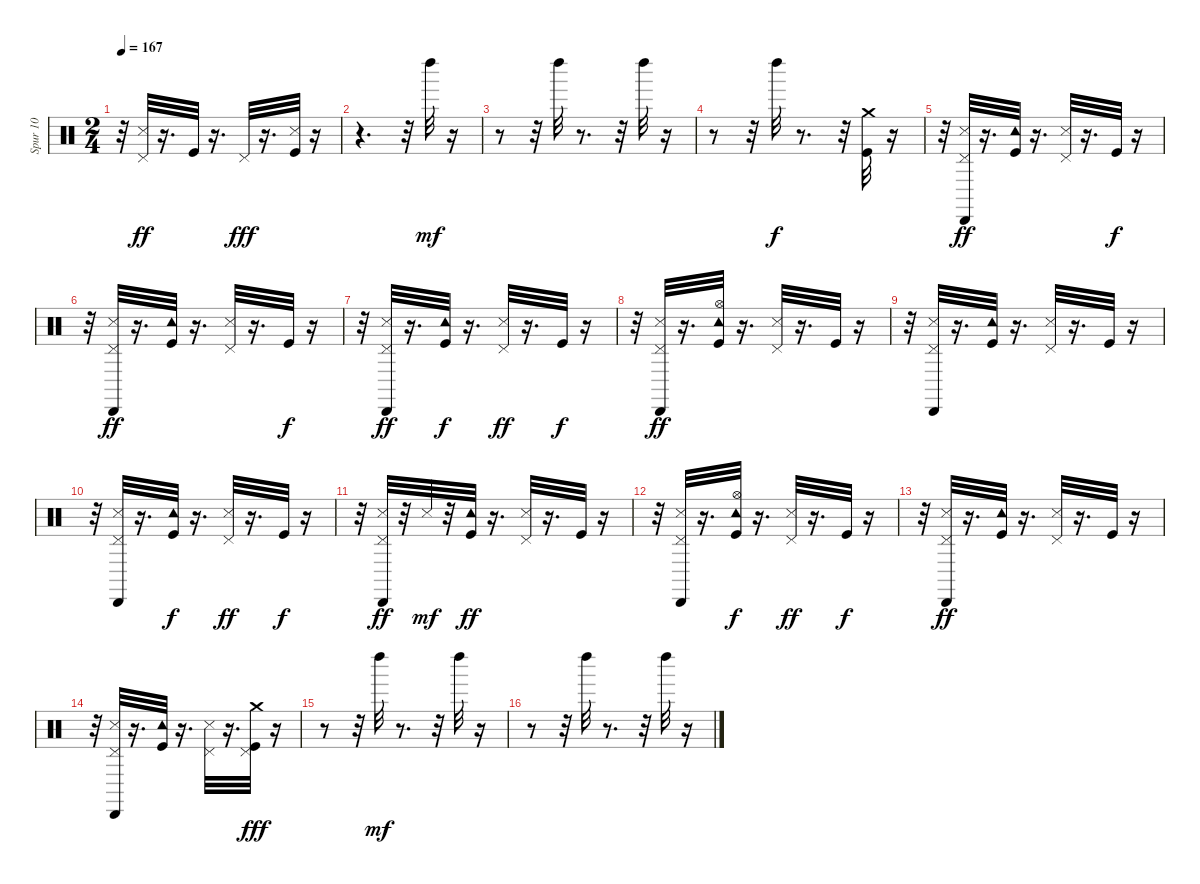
\track ("Spur 10" "Spur 10") {instrument percussion}
\staff {score}
\articulation defaults
\ts (2 4)
\tempo 167
\clef neutral
\ks c
r.32{dy ff} ("Snare (side stick) 3" "Pedal Hi-Hat (hit)").32 r.16{d} "Kick (hit)".32 r.16{d} "Pedal Hi-Hat (hit)".32{dy fff} r.16{d} ("Snare (side stick) 3" "Kick (hit)").32 r.16 |
r.4{d} r.32 "Left Maraca (hit)".32{dy mf} r.16 |
r.8 r.32 "Left Maraca (hit)".32 r.8{d} r.32 "Left Maraca (hit)".32 r.16 |
r.8 r.32 "Left Maraca (hit)".32{dy f} r.8{d} r.32 ("Kick (hit)" "Crash medium (hit)").32 r.16 |
r.32 ("Snare (side stick) 3" "Cabasa (hit)" "Pedal Hi-Hat (hit)").32{dy ff} r.16{d} ("Kick (hit)" "Tambourine (hit)").32 r.16{d} ("Snare (side stick) 3" "Pedal Hi-Hat (hit)").32 r.16{d} "Kick (hit)".32{dy f} r.16 |
r.32 ("Cabasa (hit)" "Pedal Hi-Hat (hit)" "Snare (side stick) 3").32{dy ff} r.16{d} ("Kick (hit)" "Tambourine (hit)").32 r.16{d} ("Snare (side stick) 3" "Pedal Hi-Hat (hit)").32 r.16{d} "Kick (hit)".32{dy f} r.16 |
r.32 ("Pedal Hi-Hat (hit)" "Snare (side stick) 3" "Cabasa (hit)").32{dy ff} r.16{d} ("Tambourine (hit)" "Kick (hit)").32{dy f} r.16{d} ("Snare (side stick) 3" "Pedal Hi-Hat (hit)").32{dy ff} r.16{d} "Kick (hit)".32{dy f} r.16 |
r.32 ("Pedal Hi-Hat (hit)" "Snare (side stick) 3" "Cabasa (hit)").32{dy ff} r.16{d} ("Hi-Hat (open)" "Tambourine (hit)" "Kick (hit)").32 r.16{d} ("Snare (side stick) 3" "Pedal Hi-Hat (hit)").32 r.16{d} "Kick (hit)".32 r.16 |
r.32 ("Snare (side stick) 3" "Cabasa (hit)" "Pedal Hi-Hat (hit)").32 r.16{d} ("Tambourine (hit)" "Kick (hit)").32 r.16{d} ("Pedal Hi-Hat (hit)" "Snare (side stick) 3").32 r.16{d} "Kick (hit)".32 r.16 |
r.32 ("Cabasa (hit)" "Pedal Hi-Hat (hit)" "Snare (side stick) 3").32 r.16{d} ("Kick (hit)" "Tambourine (hit)").32{dy f} r.16{d} ("Pedal Hi-Hat (hit)" "Snare (side stick) 3").32{dy ff} r.16{d} "Kick (hit)".32{dy f} r.16 |
r.32 ("Cabasa (hit)" "Snare (side stick) 3" "Pedal Hi-Hat (hit)").32{dy ff} r.32 "Snare (side stick) 3".32{dy mf} r.32 ("Kick (hit)" "Tambourine (hit)").32{dy ff} r.16{d} ("Snare (side stick) 3" "Pedal Hi-Hat (hit)").32 r.16{d} "Kick (hit)".32 r.16 |
r.32 ("Snare (side stick) 3" "Pedal Hi-Hat (hit)" "Cabasa (hit)").32 r.16{d} ("Kick (hit)" "Tambourine (hit)" "Hi-Hat (open)").32{dy f} r.16{d} ("Snare (side stick) 3" "Pedal Hi-Hat (hit)").32{dy ff} r.16{d} "Kick (hit)".32{dy f} r.16 |
r.32 ("Snare (side stick) 3" "Pedal Hi-Hat (hit)" "Cabasa (hit)").32{dy ff} r.16{d} ("Tambourine (hit)" "Kick (hit)").32 r.16{d} ("Snare (side stick) 3" "Pedal Hi-Hat (hit)").32 r.16{d} "Kick (hit)".32 r.16 |
r.32 ("Pedal Hi-Hat (hit)" "Snare (side stick) 3" "Cabasa (hit)").32 r.16{d} ("Kick (hit)" "Tambourine (hit)").32 r.16{d} ("Snare (side stick) 3" "Pedal Hi-Hat (hit)").32 r.16{d} ("Pedal Hi-Hat (hit)" "Crash medium (hit)" "Kick (hit)").32{dy fff} r.16 |
r.8 r.32 "Left Maraca (hit)".32{dy mf} r.8{d} r.32 "Left Maraca (hit)".32 r.16 |
r.8 r.32 "Left Maraca (hit)".32 r.8{d} r.32 "Left Maraca (hit)".32 r.16
